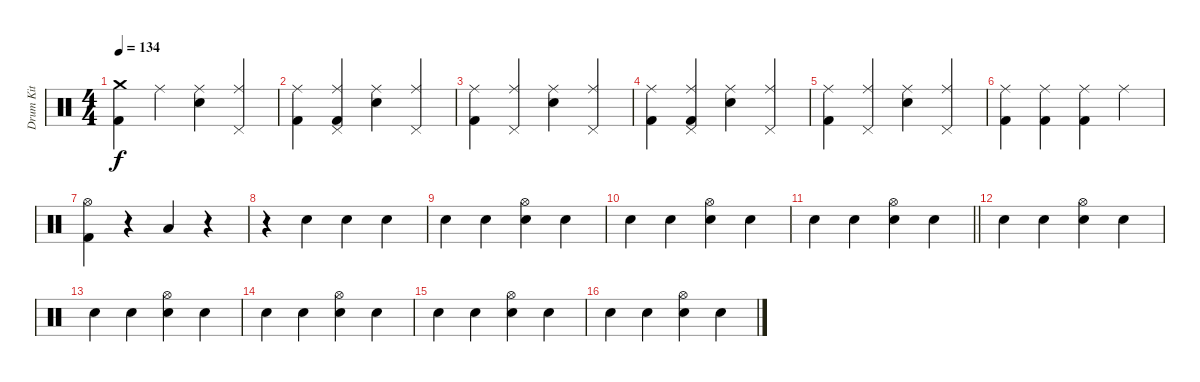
\track ("Drum Kit" "Drum Kit") {instrument percussion}
\staff {score}
\articulation defaults
\ts (4 4)
\tempo 134
\clef neutral
\ks c
("Crash medium (hit)" "Kick (hit) 2").4{dy f} "Ride (middle)".4 ("Ride (middle)" "Snare (hit) 2").4 ("Ride (middle)" "Pedal Hi-Hat (hit)").4 |
("Ride (middle)" "Kick (hit) 2").4 ("Ride (middle)" "Pedal Hi-Hat (hit)" "Kick (hit) 2").4 ("Ride (middle)" "Snare (hit) 2").4 ("Ride (middle)" "Pedal Hi-Hat (hit)").4 |
("Ride (middle)" "Kick (hit) 2").4 ("Ride (middle)" "Pedal Hi-Hat (hit)").4 ("Ride (middle)" "Snare (hit) 2").4 ("Ride (middle)" "Pedal Hi-Hat (hit)").4 |
("Ride (middle)" "Kick (hit) 2").4 ("Ride (middle)" "Pedal Hi-Hat (hit)" "Kick (hit) 2").4 ("Ride (middle)" "Snare (hit) 2").4 ("Ride (middle)" "Pedal Hi-Hat (hit)").4 |
("Ride (middle)" "Kick (hit) 2").4 ("Ride (middle)" "Pedal Hi-Hat (hit)").4 ("Ride (middle)" "Snare (hit) 2").4 ("Ride (middle)" "Pedal Hi-Hat (hit)").4 |
("Ride (middle)" "Kick (hit) 2").4 ("Ride (middle)" "Kick (hit) 2").4 ("Ride (middle)" "Kick (hit) 2").4 "Ride (middle)".4 |
("Hi-Hat (open)" "Kick (hit) 2").4 r.4 "Low Tom (hit)".4 r.4 |
r.4{volume 4} "Snare (hit) 2".4 "Snare (hit) 2".4{volume 6} "Snare (hit) 2".4 |
"Snare (hit) 2".4 "Snare (hit) 2".4 ("Hi-Hat (open)" "Snare (hit) 2").4 "Snare (hit) 2".4 |
"Snare (hit) 2".4 "Snare (hit) 2".4 ("Hi-Hat (open)" "Snare (hit) 2").4 "Snare (hit) 2".4 |
\barLineRight lightlight "Snare (hit) 2".4 "Snare (hit) 2".4
("Hi-Hat (open)" "Snare (hit) 2").4 "Snare (hit) 2".4 |
"Snare (hit) 2".4 "Snare (hit) 2".4 ("Hi-Hat (open)" "Snare (hit) 2").4 "Snare (hit) 2".4 |
"Snare (hit) 2".4 "Snare (hit) 2".4 ("Hi-Hat (open)" "Snare (hit) 2").4 "Snare (hit) 2".4 |
"Snare (hit) 2".4 "Snare (hit) 2".4 ("Hi-Hat (open)" "Snare (hit) 2").4 "Snare (hit) 2".4 |
"Snare (hit) 2".4 "Snare (hit) 2".4 ("Hi-Hat (open)" "Snare (hit) 2").4 "Snare (hit) 2".4 |
"Snare (hit) 2".4{volume 10} "Snare (hit) 2".4 ("Hi-Hat (open)" "Snare (hit) 2").4 "Snare (hit) 2".4
